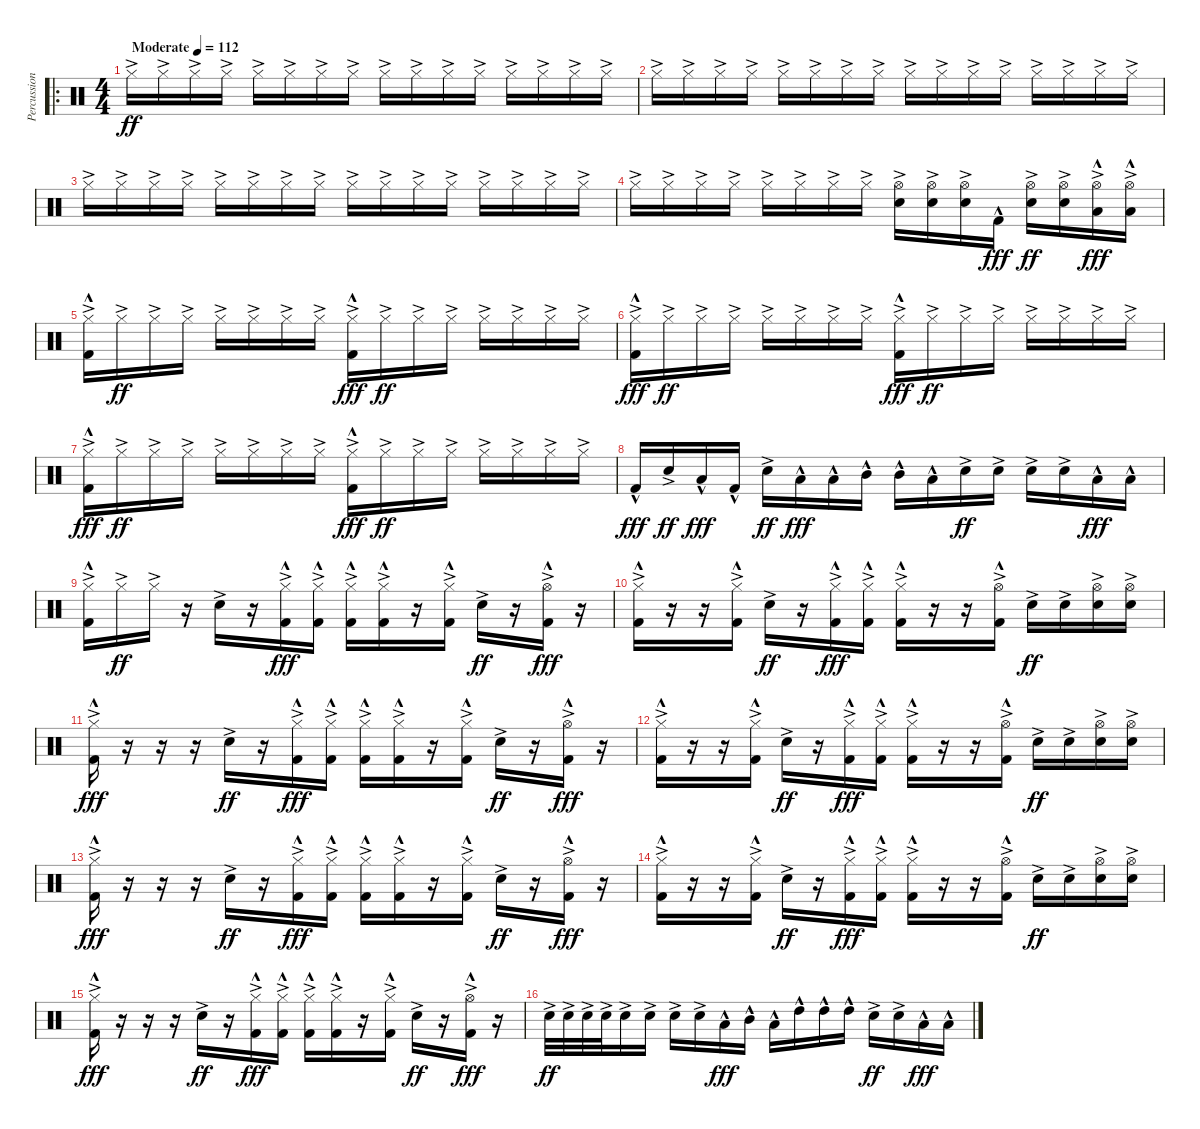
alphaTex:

\track ("Percussion" "Percussion") {instrument percussion}
\staff {score}
\articulation defaults
\ro
\ts (4 4)
\tempo (112 "Moderate")
\clef neutral
\ks c "Hi-Hat (closed)"{ac}.16{dy ff} "Hi-Hat (closed)"{ac}.16 "Hi-Hat (closed)"{ac}.16 "Hi-Hat (closed)"{ac}.16 "Hi-Hat (closed)"{ac}.16 "Hi-Hat (closed)"{ac}.16 "Hi-Hat (closed)"{ac}.16 "Hi-Hat (closed)"{ac}.16 "Hi-Hat (closed)"{ac}.16 "Hi-Hat (closed)"{ac}.16 "Hi-Hat (closed)"{ac}.16 "Hi-Hat (closed)"{ac}.16 "Hi-Hat (closed)"{ac}.16 "Hi-Hat (closed)"{ac}.16 "Hi-Hat (closed)"{ac}.16 "Hi-Hat (closed)"{ac}.16
|
"Hi-Hat (closed)"{ac}.16 "Hi-Hat (closed)"{ac}.16 "Hi-Hat (closed)"{ac}.16 "Hi-Hat (closed)"{ac}.16 "Hi-Hat (closed)"{ac}.16 "Hi-Hat (closed)"{ac}.16 "Hi-Hat (closed)"{ac}.16 "Hi-Hat (closed)"{ac}.16 "Hi-Hat (closed)"{ac}.16 "Hi-Hat (closed)"{ac}.16 "Hi-Hat (closed)"{ac}.16 "Hi-Hat (closed)"{ac}.16 "Hi-Hat (closed)"{ac}.16 "Hi-Hat (closed)"{ac}.16 "Hi-Hat (closed)"{ac}.16 "Hi-Hat (closed)"{ac}.16 |
"Hi-Hat (closed)"{ac}.16 "Hi-Hat (closed)"{ac}.16 "Hi-Hat (closed)"{ac}.16 "Hi-Hat (closed)"{ac}.16 "Hi-Hat (closed)"{ac}.16 "Hi-Hat (closed)"{ac}.16 "Hi-Hat (closed)"{ac}.16 "Hi-Hat (closed)"{ac}.16 "Hi-Hat (closed)"{ac}.16 "Hi-Hat (closed)"{ac}.16 "Hi-Hat (closed)"{ac}.16 "Hi-Hat (closed)"{ac}.16 "Hi-Hat (closed)"{ac}.16 "Hi-Hat (closed)"{ac}.16 "Hi-Hat (closed)"{ac}.16 "Hi-Hat (closed)"{ac}.16 |
"Hi-Hat (closed)"{ac}.16 "Hi-Hat (closed)"{ac}.16 "Hi-Hat (closed)"{ac}.16 "Hi-Hat (closed)"{ac}.16 "Hi-Hat (closed)"{ac}.16 "Hi-Hat (closed)"{ac}.16 "Hi-Hat (closed)"{ac}.16 "Hi-Hat (closed)"{ac}.16 ("Hi-Hat (open)"{ac} "Snare (hit) 2"{ac}).16 ("Hi-Hat (open)"{ac} "Snare (hit) 2"{ac}).16 ("Hi-Hat (open)"{ac} "Snare (hit) 2"{ac}).16 "Kick (hit) 2"{hac}.16{dy fff} ("Hi-Hat (open)"{ac} "Snare (hit) 2"{ac}).16{dy ff} ("Hi-Hat (open)"{ac} "Snare (hit) 2"{ac}).16 ("Hi-Hat (open)"{ac} "Low Tom (hit)"{hac}).16{dy fff} ("Hi-Hat (open)"{ac} "Low Tom (hit)"{hac}).16 |
("Hi-Hat (closed)"{ac} "Kick (hit) 2"{hac}).16 "Hi-Hat (closed)"{ac}.16{dy ff} "Hi-Hat (closed)"{ac}.16 "Hi-Hat (closed)"{ac}.16 "Hi-Hat (closed)"{ac}.16 "Hi-Hat (closed)"{ac}.16 "Hi-Hat (closed)"{ac}.16 "Hi-Hat (closed)"{ac}.16 ("Hi-Hat (closed)"{ac} "Kick (hit) 2"{hac}).16{dy fff} "Hi-Hat (closed)"{ac}.16{dy ff} "Hi-Hat (closed)"{ac}.16 "Hi-Hat (closed)"{ac}.16 "Hi-Hat (closed)"{ac}.16 "Hi-Hat (closed)"{ac}.16 "Hi-Hat (closed)"{ac}.16 "Hi-Hat (closed)"{ac}.16 |
("Hi-Hat (closed)"{ac} "Kick (hit) 2"{hac}).16{dy fff} "Hi-Hat (closed)"{ac}.16{dy ff} "Hi-Hat (closed)"{ac}.16 "Hi-Hat (closed)"{ac}.16 "Hi-Hat (closed)"{ac}.16 "Hi-Hat (closed)"{ac}.16 "Hi-Hat (closed)"{ac}.16 "Hi-Hat (closed)"{ac}.16 ("Hi-Hat (closed)"{ac} "Kick (hit) 2"{hac}).16{dy fff} "Hi-Hat (closed)"{ac}.16{dy ff} "Hi-Hat (closed)"{ac}.16 "Hi-Hat (closed)"{ac}.16 "Hi-Hat (closed)"{ac}.16 "Hi-Hat (closed)"{ac}.16 "Hi-Hat (closed)"{ac}.16 "Hi-Hat (closed)"{ac}.16 |
("Hi-Hat (closed)"{ac} "Kick (hit) 2"{hac}).16{dy fff} "Hi-Hat (closed)"{ac}.16{dy ff} "Hi-Hat (closed)"{ac}.16 "Hi-Hat (closed)"{ac}.16 "Hi-Hat (closed)"{ac}.16 "Hi-Hat (closed)"{ac}.16 "Hi-Hat (closed)"{ac}.16 "Hi-Hat (closed)"{ac}.16 ("Hi-Hat (closed)"{ac} "Kick (hit) 2"{hac}).16{dy fff} "Hi-Hat (closed)"{ac}.16{dy ff} "Hi-Hat (closed)"{ac}.16 "Hi-Hat (closed)"{ac}.16 "Hi-Hat (closed)"{ac}.16 "Hi-Hat (closed)"{ac}.16 "Hi-Hat (closed)"{ac}.16 "Hi-Hat (closed)"{ac}.16 |
"Kick (hit) 2"{hac}.16{dy fff} "Snare (hit) 2"{ac}.16{dy ff} "Low Tom (hit)"{hac}.16{dy fff} "Kick (hit) 2"{hac}.16 "Snare (hit) 2"{ac}.16{dy ff} "Low Tom (hit)"{hac}.16{dy fff} "Low Tom (hit)"{hac}.16 "Mid Tom (hit)"{hac}.16 "Mid Tom (hit)"{hac}.16 "Low Tom (hit)"{hac}.16 "Snare (hit) 2"{ac}.16{dy ff} "Snare (hit) 2"{ac}.16 "Snare (hit) 2"{ac}.16 "Snare (hit) 2"{ac}.16 "Low Tom (hit)"{hac}.16{dy fff} "Low Tom (hit)"{hac}.16 |
("Hi-Hat (closed)"{ac} "Kick (hit) 2"{hac}).16 "Hi-Hat (closed)"{ac}.16{dy ff} "Hi-Hat (closed)"{ac}.16 r.16 "Snare (hit) 2"{ac}.16 r.16 ("Hi-Hat (closed)"{ac} "Kick (hit) 2"{hac}).16{dy fff} ("Hi-Hat (closed)"{ac} "Kick (hit) 2"{hac}).16 ("Hi-Hat (closed)"{ac} "Kick (hit) 2"{hac}).16 ("Hi-Hat (closed)"{ac} "Kick (hit) 2"{hac}).16 r.16 ("Hi-Hat (closed)"{ac} "Kick (hit) 2"{hac}).16 "Snare (hit) 2"{ac}.16{dy ff} r.16 ("Hi-Hat (open)"{ac} "Kick (hit) 2"{hac}).16{dy fff} r.16 |
("Hi-Hat (closed)"{ac} "Kick (hit) 2"{hac}).16 r.16 r.16 ("Hi-Hat (closed)"{ac} "Kick (hit) 2"{hac}).16 "Snare (hit) 2"{ac}.16{dy ff} r.16 ("Hi-Hat (closed)"{ac} "Kick (hit) 2"{hac}).16{dy fff} ("Hi-Hat (closed)"{ac} "Kick (hit) 2"{hac}).16 ("Hi-Hat (closed)"{ac} "Kick (hit) 2"{hac}).16 r.16 r.16 ("Hi-Hat (open)"{ac} "Kick (hit) 2"{hac}).16 "Snare (hit) 2"{ac}.16{dy ff} "Snare (hit) 2"{ac}.16 ("Hi-Hat (open)"{ac} "Snare (hit) 2"{ac}).16 ("Hi-Hat (open)"{ac} "Snare (hit) 2"{ac}).16 |
("Hi-Hat (closed)"{ac} "Kick (hit) 2"{hac}).16{dy fff} r.16 r.16 r.16 "Snare (hit) 2"{ac}.16{dy ff} r.16 ("Hi-Hat (closed)"{ac} "Kick (hit) 2"{hac}).16{dy fff} ("Hi-Hat (closed)"{ac} "Kick (hit) 2"{hac}).16 ("Hi-Hat (closed)"{ac} "Kick (hit) 2"{hac}).16 ("Hi-Hat (closed)"{ac} "Kick (hit) 2"{hac}).16 r.16 ("Hi-Hat (closed)"{ac} "Kick (hit) 2"{hac}).16 "Snare (hit) 2"{ac}.16{dy ff} r.16 ("Hi-Hat (open)"{ac} "Kick (hit) 2"{hac}).16{dy fff} r.16 |
("Hi-Hat (closed)"{ac} "Kick (hit) 2"{hac}).16 r.16 r.16 ("Hi-Hat (closed)"{ac} "Kick (hit) 2"{hac}).16 "Snare (hit) 2"{ac}.16{dy ff} r.16 ("Hi-Hat (closed)"{ac} "Kick (hit) 2"{hac}).16{dy fff} ("Hi-Hat (closed)"{ac} "Kick (hit) 2"{hac}).16 ("Hi-Hat (closed)"{ac} "Kick (hit) 2"{hac}).16 r.16 r.16 ("Hi-Hat (open)"{ac} "Kick (hit) 2"{hac}).16 "Snare (hit) 2"{ac}.16{dy ff} "Snare (hit) 2"{ac}.16 ("Hi-Hat (open)"{ac} "Snare (hit) 2"{ac}).16 ("Hi-Hat (open)"{ac} "Snare (hit) 2"{ac}).16 |
("Hi-Hat (closed)"{ac} "Kick (hit) 2"{hac}).16{dy fff} r.16 r.16 r.16 "Snare (hit) 2"{ac}.16{dy ff} r.16 ("Hi-Hat (closed)"{ac} "Kick (hit) 2"{hac}).16{dy fff} ("Hi-Hat (closed)"{ac} "Kick (hit) 2"{hac}).16 ("Hi-Hat (closed)"{ac} "Kick (hit) 2"{hac}).16 ("Hi-Hat (closed)"{ac} "Kick (hit) 2"{hac}).16 r.16 ("Hi-Hat (closed)"{ac} "Kick (hit) 2"{hac}).16 "Snare (hit) 2"{ac}.16{dy ff} r.16 ("Hi-Hat (open)"{ac} "Kick (hit) 2"{hac}).16{dy fff} r.16 |
("Hi-Hat (closed)"{ac} "Kick (hit) 2"{hac}).16 r.16 r.16 ("Hi-Hat (closed)"{ac} "Kick (hit) 2"{hac}).16 "Snare (hit) 2"{ac}.16{dy ff} r.16 ("Hi-Hat (closed)"{ac} "Kick (hit) 2"{hac}).16{dy fff} ("Hi-Hat (closed)"{ac} "Kick (hit) 2"{hac}).16 ("Hi-Hat (closed)"{ac} "Kick (hit) 2"{hac}).16 r.16 r.16 ("Hi-Hat (open)"{ac} "Kick (hit) 2"{hac}).16 "Snare (hit) 2"{ac}.16{dy ff} "Snare (hit) 2"{ac}.16 ("Hi-Hat (open)"{ac} "Snare (hit) 2"{ac}).16 ("Hi-Hat (open)"{ac} "Snare (hit) 2"{ac}).16 |
("Hi-Hat (closed)"{ac} "Kick (hit) 2"{hac}).16{dy fff} r.16 r.16 r.16 "Snare (hit) 2"{ac}.16{dy ff} r.16 ("Hi-Hat (closed)"{ac} "Kick (hit) 2"{hac}).16{dy fff} ("Hi-Hat (closed)"{ac} "Kick (hit) 2"{hac}).16 ("Hi-Hat (closed)"{ac} "Kick (hit) 2"{hac}).16 ("Hi-Hat (closed)"{ac} "Kick (hit) 2"{hac}).16 r.16 ("Hi-Hat (closed)"{ac} "Kick (hit) 2"{hac}).16 "Snare (hit) 2"{ac}.16{dy ff} r.16 ("Hi-Hat (open)"{ac} "Kick (hit) 2"{hac}).16{dy fff} r.16 |
"Snare (hit) 2"{ac}.32{dy ff} "Snare (hit) 2"{ac}.32 "Snare (hit) 2"{ac}.32 "Snare (hit) 2"{ac}.32 "Snare (hit) 2"{ac}.16 "Snare (hit) 2"{ac}.16 "Snare (hit) 2"{ac}.16 "Snare (hit) 2"{ac}.16 "Low Tom (hit)"{hac}.16{dy fff} "Mid Tom (hit)"{hac}.16 "Low Tom (hit)"{hac}.16 "High Tom (hit)"{hac}.16 "High Tom (hit)"{hac}.16 "High Tom (hit)"{hac}.16 "Snare (hit) 2"{ac}.16{dy ff} "Snare (hit) 2"{ac}.16 "Low Tom (hit)"{hac}.16{dy fff} "Low Tom (hit)"{hac}.16
